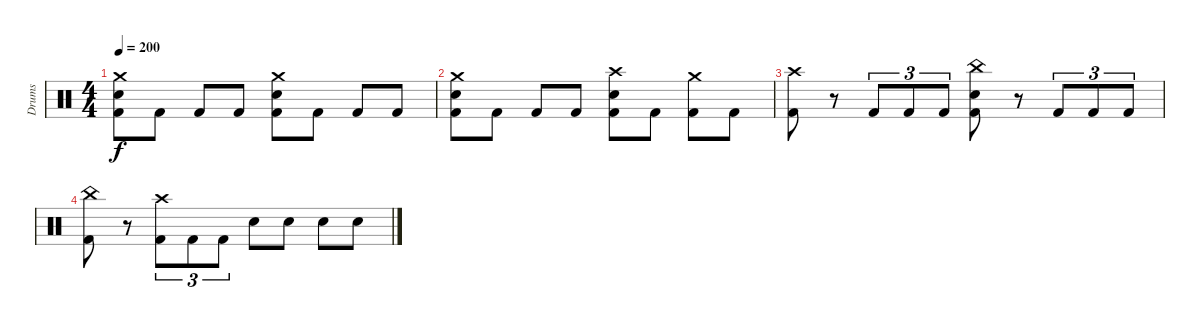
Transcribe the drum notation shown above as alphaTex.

\track ("Drums" "Drums") {instrument percussion}
\staff {score}
\articulation defaults
\ts (4 4)
\tempo 200
\clef neutral
\ks c
("Crash medium (hit)" "Electric Snare (hit)" "Kick (hit) 2").8{dy f} "Kick (hit) 2".8 "Kick (hit) 2".8 "Kick (hit) 2".8 ("Crash medium (hit)" "Electric Snare (hit)" "Kick (hit) 2").8 "Kick (hit) 2".8 "Kick (hit) 2".8 "Kick (hit) 2".8 |
("Crash medium (hit)" "Electric Snare (hit)" "Kick (hit) 2").8 "Kick (hit) 2".8 "Kick (hit) 2".8 "Kick (hit) 2".8 ("Crash high (hit)" "Electric Snare (hit)" "Kick (hit) 2").8 "Kick (hit) 2".8 ("Crash medium (hit)" "Kick (hit) 2").8 "Kick (hit) 2".8 |
("Crash high (hit)" "Kick (hit) 2").8 r.8 "Kick (hit) 2".8{tu (3 2)} "Kick (hit) 2".8{tu (3 2)} "Kick (hit) 2".8{tu (3 2)} ("China (hit)" "Electric Snare (hit)" "Kick (hit) 2").8 r.8 "Kick (hit) 2".8{tu (3 2)} "Kick (hit) 2".8{tu (3 2)} "Kick (hit) 2".8{tu (3 2)} |
("China (hit)" "Kick (hit) 2").8 r.8 ("Crash high (hit)" "Kick (hit) 2").8{tu (3 2)} "Kick (hit) 2".8{tu (3 2)} "Kick (hit) 2".8{tu (3 2)} "Electric Snare (hit)".8 "Electric Snare (hit)".8 "Electric Snare (hit)".8 "Electric Snare (hit)".8
